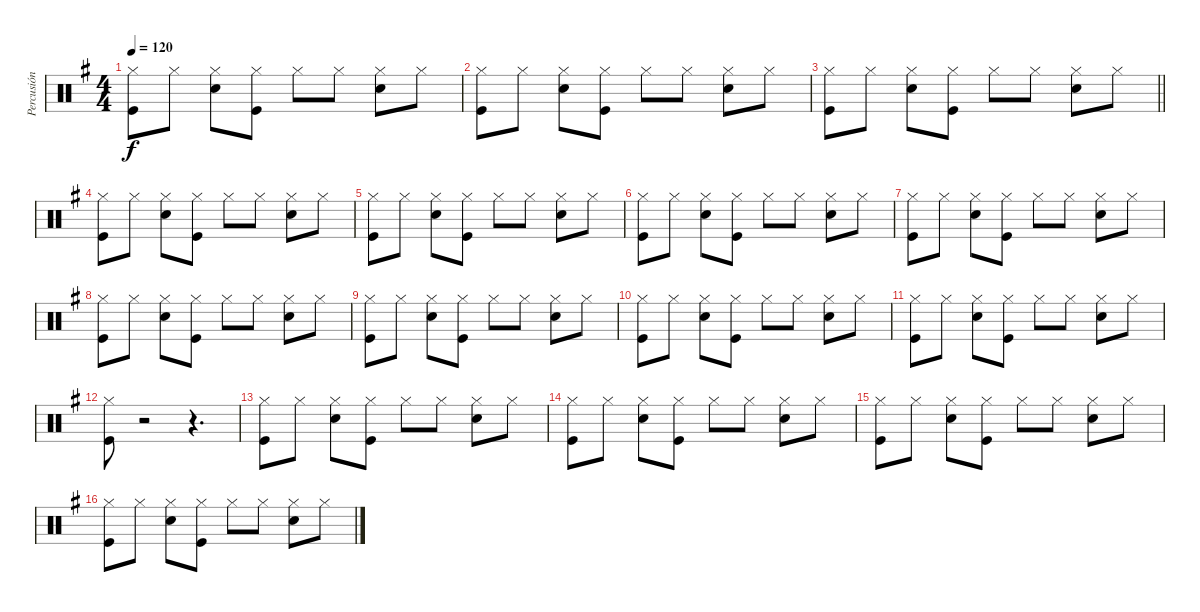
\track ("Percusión" "Percusión") {instrument percussion}
\staff {score}
\articulation defaults
\ts (4 4)
\tempo 120
\clef neutral
\ks g
("Hi-Hat (closed)" "Kick (hit)").8{dy f} "Hi-Hat (closed)".8 ("Hi-Hat (closed)" "Electric Snare (hit)").8 ("Hi-Hat (closed)" "Kick (hit)").8 "Hi-Hat (closed)".8 "Hi-Hat (closed)".8 ("Hi-Hat (closed)" "Electric Snare (hit)").8 "Hi-Hat (closed)".8 |
("Hi-Hat (closed)" "Kick (hit)").8 "Hi-Hat (closed)".8 ("Hi-Hat (closed)" "Electric Snare (hit)").8 ("Hi-Hat (closed)" "Kick (hit)").8 "Hi-Hat (closed)".8 "Hi-Hat (closed)".8 ("Hi-Hat (closed)" "Electric Snare (hit)").8 "Hi-Hat (closed)".8 |
\barLineRight lightlight
("Hi-Hat (closed)" "Kick (hit)").8 "Hi-Hat (closed)".8 ("Hi-Hat (closed)" "Electric Snare (hit)").8 ("Hi-Hat (closed)" "Kick (hit)").8 "Hi-Hat (closed)".8 "Hi-Hat (closed)".8 ("Hi-Hat (closed)" "Electric Snare (hit)").8 "Hi-Hat (closed)".8 |
("Hi-Hat (closed)" "Kick (hit)").8 "Hi-Hat (closed)".8 ("Hi-Hat (closed)" "Electric Snare (hit)").8 ("Hi-Hat (closed)" "Kick (hit)").8 "Hi-Hat (closed)".8 "Hi-Hat (closed)".8 ("Hi-Hat (closed)" "Electric Snare (hit)").8 "Hi-Hat (closed)".8 |
("Hi-Hat (closed)" "Kick (hit)").8 "Hi-Hat (closed)".8 ("Hi-Hat (closed)" "Electric Snare (hit)").8 ("Hi-Hat (closed)" "Kick (hit)").8 "Hi-Hat (closed)".8 "Hi-Hat (closed)".8 ("Hi-Hat (closed)" "Electric Snare (hit)").8 "Hi-Hat (closed)".8 |
("Hi-Hat (closed)" "Kick (hit)").8 "Hi-Hat (closed)".8 ("Hi-Hat (closed)" "Electric Snare (hit)").8 ("Hi-Hat (closed)" "Kick (hit)").8 "Hi-Hat (closed)".8 "Hi-Hat (closed)".8 ("Hi-Hat (closed)" "Electric Snare (hit)").8 "Hi-Hat (closed)".8 |
("Hi-Hat (closed)" "Kick (hit)").8 "Hi-Hat (closed)".8 ("Hi-Hat (closed)" "Electric Snare (hit)").8 ("Hi-Hat (closed)" "Kick (hit)").8 "Hi-Hat (closed)".8 "Hi-Hat (closed)".8 ("Hi-Hat (closed)" "Electric Snare (hit)").8 "Hi-Hat (closed)".8 |
("Hi-Hat (closed)" "Kick (hit)").8 "Hi-Hat (closed)".8 ("Hi-Hat (closed)" "Electric Snare (hit)").8 ("Hi-Hat (closed)" "Kick (hit)").8 "Hi-Hat (closed)".8 "Hi-Hat (closed)".8 ("Hi-Hat (closed)" "Electric Snare (hit)").8 "Hi-Hat (closed)".8 |
("Hi-Hat (closed)" "Kick (hit)").8 "Hi-Hat (closed)".8 ("Hi-Hat (closed)" "Electric Snare (hit)").8 ("Hi-Hat (closed)" "Kick (hit)").8 "Hi-Hat (closed)".8 "Hi-Hat (closed)".8 ("Hi-Hat (closed)" "Electric Snare (hit)").8 "Hi-Hat (closed)".8 |
("Hi-Hat (closed)" "Kick (hit)").8 "Hi-Hat (closed)".8 ("Hi-Hat (closed)" "Electric Snare (hit)").8 ("Hi-Hat (closed)" "Kick (hit)").8 "Hi-Hat (closed)".8 "Hi-Hat (closed)".8 ("Hi-Hat (closed)" "Electric Snare (hit)").8 "Hi-Hat (closed)".8 |
("Hi-Hat (closed)" "Kick (hit)").8 "Hi-Hat (closed)".8 ("Hi-Hat (closed)" "Electric Snare (hit)").8 ("Hi-Hat (closed)" "Kick (hit)").8 "Hi-Hat (closed)".8 "Hi-Hat (closed)".8 ("Hi-Hat (closed)" "Electric Snare (hit)").8 "Hi-Hat (closed)".8 |
("Hi-Hat (closed)" "Kick (hit)").8 r.2 r.4{d} |
("Hi-Hat (closed)" "Kick (hit)").8 "Hi-Hat (closed)".8 ("Hi-Hat (closed)" "Electric Snare (hit)").8 ("Hi-Hat (closed)" "Kick (hit)").8 "Hi-Hat (closed)".8 "Hi-Hat (closed)".8 ("Hi-Hat (closed)" "Electric Snare (hit)").8 "Hi-Hat (closed)".8 |
("Hi-Hat (closed)" "Kick (hit)").8 "Hi-Hat (closed)".8 ("Hi-Hat (closed)" "Electric Snare (hit)").8 ("Hi-Hat (closed)" "Kick (hit)").8 "Hi-Hat (closed)".8 "Hi-Hat (closed)".8 ("Hi-Hat (closed)" "Electric Snare (hit)").8 "Hi-Hat (closed)".8 |
("Hi-Hat (closed)" "Kick (hit)").8 "Hi-Hat (closed)".8 ("Hi-Hat (closed)" "Electric Snare (hit)").8 ("Hi-Hat (closed)" "Kick (hit)").8 "Hi-Hat (closed)".8 "Hi-Hat (closed)".8 ("Hi-Hat (closed)" "Electric Snare (hit)").8 "Hi-Hat (closed)".8 |
("Hi-Hat (closed)" "Kick (hit)").8 "Hi-Hat (closed)".8 ("Hi-Hat (closed)" "Electric Snare (hit)").8 ("Hi-Hat (closed)" "Kick (hit)").8 "Hi-Hat (closed)".8 "Hi-Hat (closed)".8 ("Hi-Hat (closed)" "Electric Snare (hit)").8 "Hi-Hat (closed)".8
